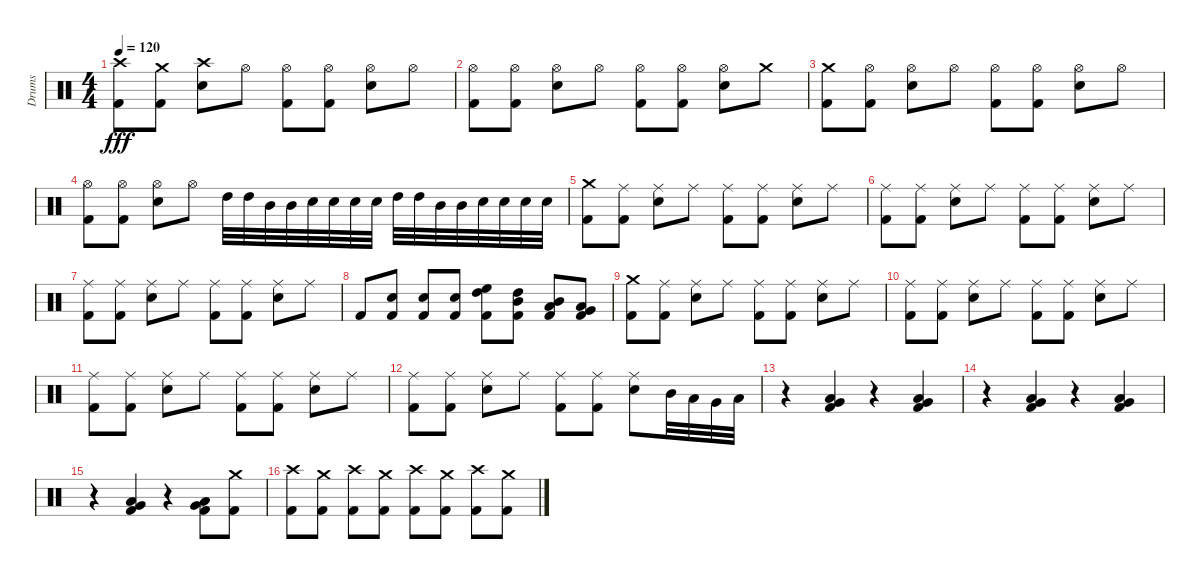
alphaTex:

\track ("Drums" "Drums") {instrument percussion}
\staff {score}
\articulation defaults
\ts (4 4)
\tempo 120
\clef neutral
\ks c
("Kick (hit) 2" "Crash high (hit)").8{dy fff} ("Kick (hit) 2" "Crash medium (hit)").8 ("Electric Snare (hit)" "Crash high (hit)").8 "Hi-Hat (open)".8 ("Kick (hit) 2" "Hi-Hat (open)").8 ("Kick (hit) 2" "Hi-Hat (open)").8 ("Electric Snare (hit)" "Hi-Hat (open)").8 "Hi-Hat (open)".8 |
("Hi-Hat (open)" "Kick (hit) 2").8 ("Hi-Hat (open)" "Kick (hit) 2").8 ("Hi-Hat (open)" "Electric Snare (hit)").8 "Hi-Hat (open)".8 ("Hi-Hat (open)" "Kick (hit) 2").8 ("Hi-Hat (open)" "Kick (hit) 2").8 ("Hi-Hat (open)" "Electric Snare (hit)").8 "Crash medium (hit)".8 |
("Kick (hit) 2" "Crash medium (hit)").8 ("Hi-Hat (open)" "Kick (hit) 2").8 ("Hi-Hat (open)" "Electric Snare (hit)").8 "Hi-Hat (open)".8 ("Hi-Hat (open)" "Kick (hit) 2").8 ("Hi-Hat (open)" "Kick (hit) 2").8 ("Hi-Hat (open)" "Electric Snare (hit)").8 "Hi-Hat (open)".8 |
("Hi-Hat (open)" "Kick (hit) 2").8 ("Hi-Hat (open)" "Kick (hit) 2").8 ("Hi-Hat (open)" "Electric Snare (hit)").8 "Hi-Hat (open)".8 "High Tom (hit)".32 "High Tom (hit)".32 "Mid Tom (hit)".32 "Mid Tom (hit)".32 "Electric Snare (hit)".32 "Electric Snare (hit)".32 "Electric Snare (hit)".32 "Electric Snare (hit)".32 "High Tom (hit)".32 "High Tom (hit)".32 "Mid Tom (hit)".32 "Mid Tom (hit)".32 "Electric Snare (hit)".32 "Electric Snare (hit)".32 "Electric Snare (hit)".32 "Electric Snare (hit)".32 |
("Kick (hit) 2" "Crash medium (hit)").8 ("Kick (hit) 2" "Ride (middle)").8 ("Electric Snare (hit)" "Ride (middle)").8 "Ride (middle)".8 ("Kick (hit) 2" "Ride (middle)").8 ("Kick (hit) 2" "Ride (middle)").8 ("Electric Snare (hit)" "Ride (middle)").8 "Ride (middle)".8 |
("Kick (hit) 2" "Ride (middle)").8 ("Kick (hit) 2" "Ride (middle)").8 ("Electric Snare (hit)" "Ride (middle)").8 "Ride (middle)".8 ("Kick (hit) 2" "Ride (middle)").8 ("Kick (hit) 2" "Ride (middle)").8 ("Electric Snare (hit)" "Ride (middle)").8 "Ride (middle)".8 |
("Kick (hit) 2" "Ride (middle)").8 ("Kick (hit) 2" "Ride (middle)").8 ("Electric Snare (hit)" "Ride (middle)").8 "Ride (middle)".8 ("Kick (hit) 2" "Ride (middle)").8 ("Kick (hit) 2" "Ride (middle)").8 ("Electric Snare (hit)" "Ride (middle)").8 "Ride (middle)".8 |
"Kick (hit) 2".8 ("Kick (hit) 2" "Electric Snare (hit)").8 ("Kick (hit) 2" "Electric Snare (hit)").8 ("Kick (hit) 2" "Electric Snare (hit)").8 ("High Floor Tom (hit)" "Kick (hit) 2" "High Tom (hit)").8 ("High Tom (hit)" "Kick (hit) 2" "Mid Tom (hit)").8 ("Mid Tom (hit)" "Kick (hit) 2" "Low Tom (hit)").8 ("Low Tom (hit)" "Kick (hit) 2" "Very Low Tom (hit)").8 |
("Kick (hit) 2" "Crash medium (hit)").8 ("Kick (hit) 2" "Ride (middle)").8 ("Electric Snare (hit)" "Ride (middle)").8 "Ride (middle)".8 ("Kick (hit) 2" "Ride (middle)").8 ("Kick (hit) 2" "Ride (middle)").8 ("Electric Snare (hit)" "Ride (middle)").8 "Ride (middle)".8 |
("Kick (hit) 2" "Ride (middle)").8 ("Kick (hit) 2" "Ride (middle)").8 ("Electric Snare (hit)" "Ride (middle)").8 "Ride (middle)".8 ("Kick (hit) 2" "Ride (middle)").8 ("Kick (hit) 2" "Ride (middle)").8 ("Electric Snare (hit)" "Ride (middle)").8 "Ride (middle)".8 |
("Ride (middle)" "Kick (hit) 2").8 ("Ride (middle)" "Kick (hit) 2").8 ("Ride (middle)" "Electric Snare (hit)").8 "Ride (middle)".8 ("Ride (middle)" "Kick (hit) 2").8 ("Ride (middle)" "Kick (hit) 2").8 ("Ride (middle)" "Electric Snare (hit)").8 "Ride (middle)".8 |
("Ride (middle)" "Kick (hit) 2").8 ("Ride (middle)" "Kick (hit) 2").8 ("Ride (middle)" "Electric Snare (hit)").8 "Ride (middle)".8 ("Ride (middle)" "Kick (hit) 2").8 ("Ride (middle)" "Kick (hit) 2").8 ("Ride (middle)" "Electric Snare (hit)").8 "Mid Tom (hit)".32 "Low Tom (hit)".32 "Very Low Tom (hit)".32 "Low Floor Tom (hit)".32 |
r.4 ("Low Tom (hit)" "Kick (hit) 2" "Very Low Tom (hit)").4 r.4 ("Low Tom (hit)" "Very Low Tom (hit)" "Kick (hit) 2").4 |
r.4 ("Kick (hit) 2" "Very Low Tom (hit)" "Low Tom (hit)").4 r.4 ("Low Tom (hit)" "Very Low Tom (hit)" "Kick (hit) 2").4 |
r.4 ("Low Tom (hit)" "Very Low Tom (hit)" "Kick (hit) 2").4 r.4 ("Low Tom (hit)" "Very Low Tom (hit)" "Kick (hit) 2").8 ("Crash medium (hit)" "Kick (hit) 2").8 |
("Crash high (hit)" "Kick (hit) 2").8 ("Crash medium (hit)" "Kick (hit) 2").8 ("Crash high (hit)" "Kick (hit) 2").8 ("Crash medium (hit)" "Kick (hit) 2").8 ("Crash high (hit)" "Kick (hit) 2").8 ("Crash medium (hit)" "Kick (hit) 2").8 ("Crash high (hit)" "Kick (hit) 2").8 ("Crash medium (hit)" "Kick (hit) 2").8
